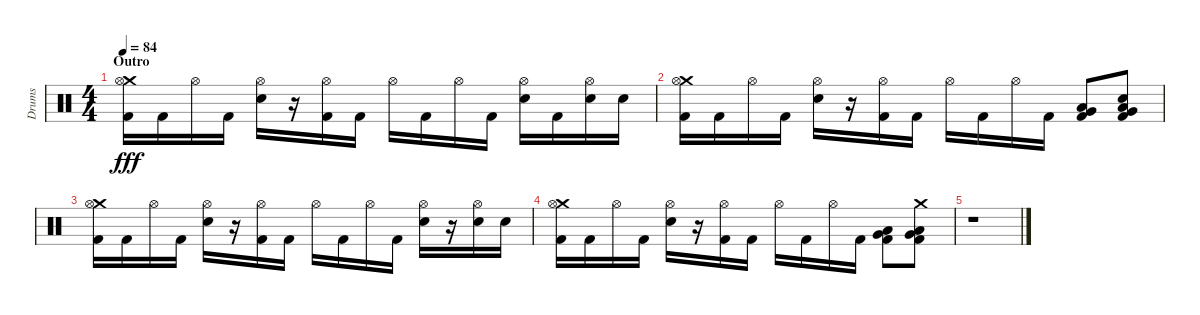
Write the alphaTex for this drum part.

\track ("Drums" "Drums") {instrument percussion}
\staff {score}
\articulation defaults
\ts (4 4)
\section ("" "Outro")
\tempo 84
\clef neutral
\ks c
("Crash medium (hit)" "Hi-Hat (open)" "Kick (hit) 2").16{dy fff} "Kick (hit) 2".16 "Hi-Hat (open)".16 "Kick (hit) 2".16 ("Hi-Hat (open)" "Electric Snare (hit)").16 r.16 ("Hi-Hat (open)" "Kick (hit) 2").16 "Kick (hit) 2".16 "Hi-Hat (open)".16 "Kick (hit) 2".16 "Hi-Hat (open)".16 "Kick (hit) 2".16 ("Hi-Hat (open)" "Electric Snare (hit)").16 "Kick (hit) 2".16 ("Hi-Hat (open)" "Electric Snare (hit)").16 "Electric Snare (hit)".16 |
("Crash medium (hit)" "Hi-Hat (open)" "Kick (hit) 2").16 "Kick (hit) 2".16 "Hi-Hat (open)".16 "Kick (hit) 2".16 ("Hi-Hat (open)" "Electric Snare (hit)").16 r.16 ("Hi-Hat (open)" "Kick (hit) 2").16 "Kick (hit) 2".16 "Hi-Hat (open)".16 "Kick (hit) 2".16 "Hi-Hat (open)".16 "Kick (hit) 2".16 ("Low Tom (hit)" "Very Low Tom (hit)" "Kick (hit) 2").8 ("Very Low Tom (hit)" "Low Floor Tom (hit)" "Snare (hit)" "Kick (hit) 2").8 |
("Crash medium (hit)" "Hi-Hat (open)" "Kick (hit) 2").16 "Kick (hit) 2".16 "Hi-Hat (open)".16 "Kick (hit) 2".16 ("Hi-Hat (open)" "Electric Snare (hit)").16 r.16 ("Hi-Hat (open)" "Kick (hit) 2").16 "Kick (hit) 2".16 "Hi-Hat (open)".16 "Kick (hit) 2".16 "Hi-Hat (open)".16 "Kick (hit) 2".16 ("Hi-Hat (open)" "Electric Snare (hit)").16 r.16 ("Hi-Hat (open)" "Electric Snare (hit)").16 "Electric Snare (hit)".16 |
("Crash medium (hit)" "Hi-Hat (open)" "Kick (hit) 2").16 "Kick (hit) 2".16 "Hi-Hat (open)".16 "Kick (hit) 2".16 ("Hi-Hat (open)" "Electric Snare (hit)").16 r.16 ("Hi-Hat (open)" "Kick (hit) 2").16 "Kick (hit) 2".16 "Hi-Hat (open)".16 "Kick (hit) 2".16 "Hi-Hat (open)".16 "Kick (hit) 2".16 ("Low Tom (hit)" "Very Low Tom (hit)" "Kick (hit) 2").8 ("Crash medium (hit)" "Very Low Tom (hit)" "Low Floor Tom (hit)" "Kick (hit) 2").8 |
r.1
